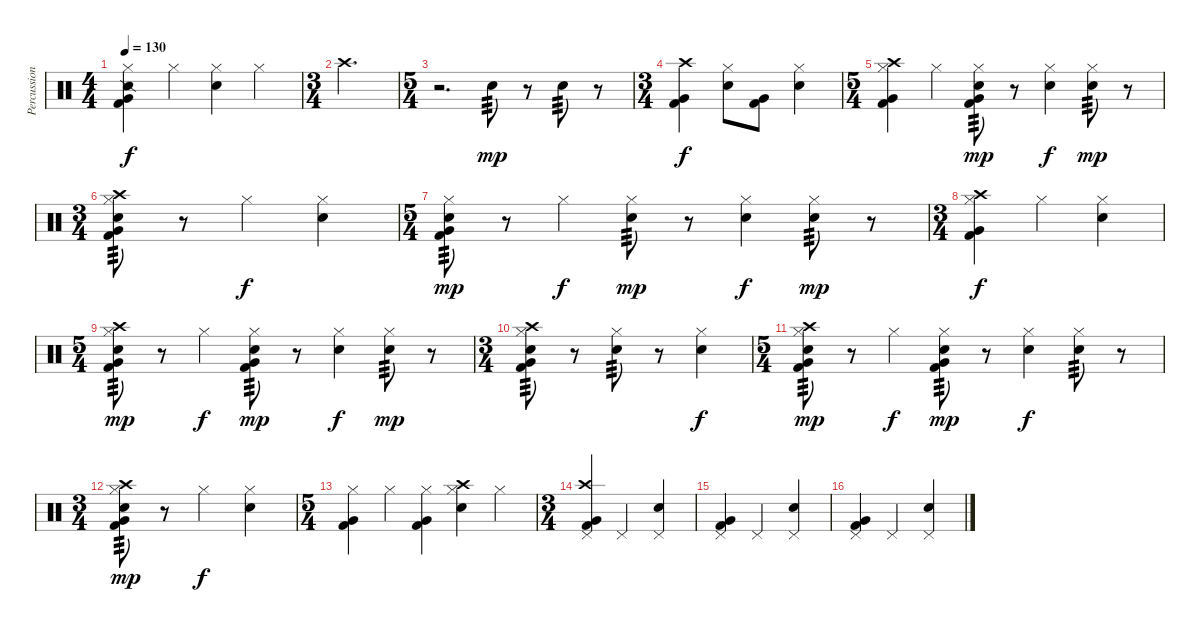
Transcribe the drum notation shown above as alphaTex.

\track ("Percussion" "Percussion") {instrument percussion}
\staff {score}
\articulation defaults
\ts (4 4)
\tempo 130
\clef neutral
\ks c
("Hi-Hat (closed)" "Snare (side stick) 2" "Very Low Tom (hit)" "Kick (hit) 2").4{dy f} "Hi-Hat (closed)".4 ("Hi-Hat (closed)" "Electric Snare (hit)").4 "Hi-Hat (closed)".4 |
\ts (3 4)
"Crash high (hit)".2{d} |
\ts (5 4)
r.2{d} "Electric Snare (hit)".8{tp 3 dy mp} r.8 "Electric Snare (hit)".8{tp 3} r.8 |
\ts (3 4)
("Crash high (hit)" "Very Low Tom (hit)" "Kick (hit) 2").4{dy f} ("Hi-Hat (closed)" "Electric Snare (hit)").8 ("Very Low Tom (hit)" "Kick (hit) 2").8 ("Hi-Hat (closed)" "Electric Snare (hit)").4 |
\ts (5 4)
("Crash high (hit)" "Hi-Hat (closed)" "Very Low Tom (hit)" "Kick (hit) 2").4 "Hi-Hat (closed)".4 ("Hi-Hat (closed)" "Electric Snare (hit)" "Very Low Tom (hit)" "Kick (hit) 2").8{tp 3 dy mp} r.8 ("Hi-Hat (closed)" "Electric Snare (hit)").4{dy f} ("Hi-Hat (closed)" "Electric Snare (hit)").8{tp 3 dy mp} r.8 |
\ts (3 4)
("Crash high (hit)" "Hi-Hat (closed)" "Electric Snare (hit)" "Very Low Tom (hit)" "Kick (hit) 2").8{tp 3} r.8 "Hi-Hat (closed)".4{dy f} ("Hi-Hat (closed)" "Electric Snare (hit)").4 |
\ts (5 4)
("Hi-Hat (closed)" "Electric Snare (hit)" "Very Low Tom (hit)" "Kick (hit) 2").8{tp 3 dy mp} r.8 "Hi-Hat (closed)".4{dy f} ("Hi-Hat (closed)" "Electric Snare (hit)").8{tp 3 dy mp} r.8 ("Hi-Hat (closed)" "Electric Snare (hit)").4{dy f} ("Hi-Hat (closed)" "Electric Snare (hit)").8{tp 3 dy mp} r.8 |
\ts (3 4)
("Crash high (hit)" "Hi-Hat (closed)" "Very Low Tom (hit)" "Kick (hit) 2").4{dy f} "Hi-Hat (closed)".4 ("Hi-Hat (closed)" "Electric Snare (hit)").4 |
\ts (5 4)
("Crash high (hit)" "Hi-Hat (closed)" "Electric Snare (hit)" "Very Low Tom (hit)" "Kick (hit) 2").8{tp 3 dy mp} r.8 "Hi-Hat (closed)".4{dy f} ("Hi-Hat (closed)" "Electric Snare (hit)" "Very Low Tom (hit)" "Kick (hit) 2").8{tp 3 dy mp} r.8 ("Hi-Hat (closed)" "Electric Snare (hit)").4{dy f} ("Hi-Hat (closed)" "Electric Snare (hit)").8{tp 3 dy mp} r.8 |
\ts (3 4)
("Crash high (hit)" "Hi-Hat (closed)" "Electric Snare (hit)" "Very Low Tom (hit)" "Kick (hit) 2").8{tp 3} r.8 ("Hi-Hat (closed)" "Electric Snare (hit)").8{tp 3} r.8 ("Hi-Hat (closed)" "Electric Snare (hit)").4{dy f} |
\ts (5 4)
("Crash high (hit)" "Hi-Hat (closed)" "Electric Snare (hit)" "Very Low Tom (hit)" "Kick (hit) 2").8{tp 3 dy mp} r.8 "Hi-Hat (closed)".4{dy f} ("Hi-Hat (closed)" "Electric Snare (hit)" "Very Low Tom (hit)" "Kick (hit) 2").8{tp 3 dy mp} r.8 ("Hi-Hat (closed)" "Electric Snare (hit)").4{dy f} ("Hi-Hat (closed)" "Electric Snare (hit)").8{tp 3} r.8 |
\ts (3 4)
("Crash high (hit)" "Hi-Hat (closed)" "Electric Snare (hit)" "Very Low Tom (hit)" "Kick (hit) 2").8{tp 3 dy mp} r.8 "Hi-Hat (closed)".4{dy f} ("Hi-Hat (closed)" "Electric Snare (hit)").4 |
\ts (5 4)
("Hi-Hat (closed)" "Very Low Tom (hit)" "Kick (hit) 2").4 "Hi-Hat (closed)".4 ("Hi-Hat (closed)" "Very Low Tom (hit)" "Kick (hit) 2").4 ("Crash high (hit)" "Hi-Hat (closed)" "Electric Snare (hit)").4 "Hi-Hat (closed)".4 |
\ts (3 4)
("Crash high (hit)" "Pedal Hi-Hat (hit)" "Very Low Tom (hit)" "Kick (hit) 2").4{volume 10} "Pedal Hi-Hat (hit)".4 ("Pedal Hi-Hat (hit)" "Electric Snare (hit)").4 |
("Pedal Hi-Hat (hit)" "Very Low Tom (hit)" "Kick (hit) 2").4 "Pedal Hi-Hat (hit)".4 ("Pedal Hi-Hat (hit)" "Electric Snare (hit)").4 |
("Pedal Hi-Hat (hit)" "Very Low Tom (hit)" "Kick (hit) 2").4 "Pedal Hi-Hat (hit)".4 ("Pedal Hi-Hat (hit)" "Electric Snare (hit)").4
